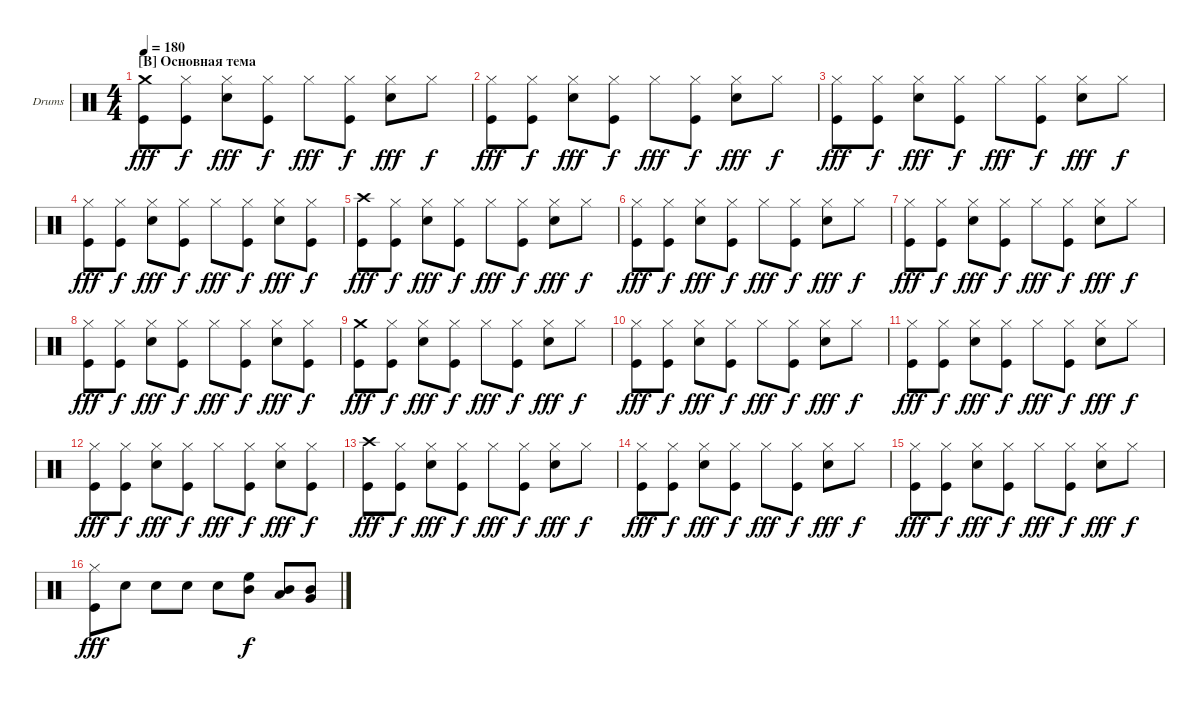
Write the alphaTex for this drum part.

\defaultSystemsLayout 4
\bracketExtendMode groupsimilarinstruments
\firstSystemTrackNameOrientation horizontal
\otherSystemsTrackNameOrientation horizontal
\track ("Барабаны" "Drums") {instrument percussion}
\staff {score}
\articulation defaults
\ts (4 4)
\section ("B" "Основная тема")
\tempo 180
\clef neutral
\scale
0.333333
\ks c
("Crash medium (hit)" "Kick (hit)").8{dy fff} ("Hi-Hat (closed)" "Kick (hit)").8{dy f} ("Hi-Hat (closed)" "Snare (hit) 2").8{dy fff} ("Hi-Hat (closed)" "Kick (hit)").8{dy f} "Hi-Hat (closed)".8{dy fff} ("Hi-Hat (closed)" "Kick (hit)").8{dy f} ("Hi-Hat (closed)" "Snare (hit) 2").8{dy fff} "Hi-Hat (closed)".8{dy f} |
\scale
0.333333 ("Hi-Hat (closed)" "Kick (hit)").8{dy fff} ("Hi-Hat (closed)" "Kick (hit)").8{dy f} ("Hi-Hat (closed)" "Snare (hit) 2").8{dy fff} ("Hi-Hat (closed)" "Kick (hit)").8{dy f} "Hi-Hat (closed)".8{dy fff} ("Hi-Hat (closed)" "Kick (hit)").8{dy f} ("Hi-Hat (closed)" "Snare (hit) 2").8{dy fff} "Hi-Hat (closed)".8{dy f} |
\scale
0.333333 ("Hi-Hat (closed)" "Kick (hit)").8{dy fff} ("Hi-Hat (closed)" "Kick (hit)").8{dy f} ("Hi-Hat (closed)" "Snare (hit) 2").8{dy fff} ("Hi-Hat (closed)" "Kick (hit)").8{dy f} "Hi-Hat (closed)".8{dy fff} ("Hi-Hat (closed)" "Kick (hit)").8{dy f} ("Hi-Hat (closed)" "Snare (hit) 2").8{dy fff} "Hi-Hat (closed)".8{dy f} |
\scale
0.333333 ("Hi-Hat (closed)" "Kick (hit)").8{dy fff} ("Hi-Hat (closed)" "Kick (hit)").8{dy f} ("Hi-Hat (closed)" "Snare (hit) 2").8{dy fff} ("Hi-Hat (closed)" "Kick (hit)").8{dy f} "Hi-Hat (closed)".8{dy fff} ("Hi-Hat (closed)" "Kick (hit)").8{dy f} ("Hi-Hat (closed)" "Snare (hit) 2").8{dy fff} ("Hi-Hat (closed)" "Kick (hit)").8{dy f} |
\scale
0.333333 ("Crash high (hit)" "Kick (hit)").8{dy fff} ("Hi-Hat (closed)" "Kick (hit)").8{dy f} ("Hi-Hat (closed)" "Snare (hit) 2").8{dy fff} ("Hi-Hat (closed)" "Kick (hit)").8{dy f} "Hi-Hat (closed)".8{dy fff} ("Hi-Hat (closed)" "Kick (hit)").8{dy f} ("Hi-Hat (closed)" "Snare (hit) 2").8{dy fff} "Hi-Hat (closed)".8{dy f} |
\scale
0.333333 ("Hi-Hat (closed)" "Kick (hit)").8{dy fff} ("Hi-Hat (closed)" "Kick (hit)").8{dy f} ("Hi-Hat (closed)" "Snare (hit) 2").8{dy fff} ("Hi-Hat (closed)" "Kick (hit)").8{dy f} "Hi-Hat (closed)".8{dy fff} ("Hi-Hat (closed)" "Kick (hit)").8{dy f} ("Hi-Hat (closed)" "Snare (hit) 2").8{dy fff} "Hi-Hat (closed)".8{dy f} |
\scale
0.333333 ("Hi-Hat (closed)" "Kick (hit)").8{dy fff} ("Hi-Hat (closed)" "Kick (hit)").8{dy f} ("Hi-Hat (closed)" "Snare (hit) 2").8{dy fff} ("Hi-Hat (closed)" "Kick (hit)").8{dy f} "Hi-Hat (closed)".8{dy fff} ("Hi-Hat (closed)" "Kick (hit)").8{dy f} ("Hi-Hat (closed)" "Snare (hit) 2").8{dy fff} "Hi-Hat (closed)".8{dy f} |
\scale
0.333333 ("Hi-Hat (closed)" "Kick (hit)").8{dy fff} ("Hi-Hat (closed)" "Kick (hit)").8{dy f} ("Hi-Hat (closed)" "Snare (hit) 2").8{dy fff} ("Hi-Hat (closed)" "Kick (hit)").8{dy f} "Hi-Hat (closed)".8{dy fff} ("Hi-Hat (closed)" "Kick (hit)").8{dy f} ("Hi-Hat (closed)" "Snare (hit) 2").8{dy fff} ("Hi-Hat (closed)" "Kick (hit)").8{dy f} |
\scale
0.333333 ("Crash medium (hit)" "Kick (hit)").8{dy fff} ("Hi-Hat (closed)" "Kick (hit)").8{dy f} ("Hi-Hat (closed)" "Snare (hit) 2").8{dy fff} ("Hi-Hat (closed)" "Kick (hit)").8{dy f} "Hi-Hat (closed)".8{dy fff} ("Hi-Hat (closed)" "Kick (hit)").8{dy f} ("Hi-Hat (closed)" "Snare (hit) 2").8{dy fff} "Hi-Hat (closed)".8{dy f} |
\scale
0.333333 ("Hi-Hat (closed)" "Kick (hit)").8{dy fff} ("Hi-Hat (closed)" "Kick (hit)").8{dy f} ("Hi-Hat (closed)" "Snare (hit) 2").8{dy fff} ("Hi-Hat (closed)" "Kick (hit)").8{dy f} "Hi-Hat (closed)".8{dy fff} ("Hi-Hat (closed)" "Kick (hit)").8{dy f} ("Hi-Hat (closed)" "Snare (hit) 2").8{dy fff} "Hi-Hat (closed)".8{dy f} |
\scale
0.333333 ("Hi-Hat (closed)" "Kick (hit)").8{dy fff} ("Hi-Hat (closed)" "Kick (hit)").8{dy f} ("Hi-Hat (closed)" "Snare (hit) 2").8{dy fff} ("Hi-Hat (closed)" "Kick (hit)").8{dy f} "Hi-Hat (closed)".8{dy fff} ("Hi-Hat (closed)" "Kick (hit)").8{dy f} ("Hi-Hat (closed)" "Snare (hit) 2").8{dy fff} "Hi-Hat (closed)".8{dy f} |
\scale
0.333333 ("Hi-Hat (closed)" "Kick (hit)").8{dy fff} ("Hi-Hat (closed)" "Kick (hit)").8{dy f} ("Hi-Hat (closed)" "Snare (hit) 2").8{dy fff} ("Hi-Hat (closed)" "Kick (hit)").8{dy f} "Hi-Hat (closed)".8{dy fff} ("Hi-Hat (closed)" "Kick (hit)").8{dy f} ("Hi-Hat (closed)" "Snare (hit) 2").8{dy fff} ("Hi-Hat (closed)" "Kick (hit)").8{dy f} |
\scale
0.333333 ("Crash high (hit)" "Kick (hit)").8{dy fff} ("Hi-Hat (closed)" "Kick (hit)").8{dy f} ("Hi-Hat (closed)" "Snare (hit) 2").8{dy fff} ("Hi-Hat (closed)" "Kick (hit)").8{dy f} "Hi-Hat (closed)".8{dy fff} ("Hi-Hat (closed)" "Kick (hit)").8{dy f} ("Hi-Hat (closed)" "Snare (hit) 2").8{dy fff} "Hi-Hat (closed)".8{dy f} |
\scale
0.333333 ("Hi-Hat (closed)" "Kick (hit)").8{dy fff} ("Hi-Hat (closed)" "Kick (hit)").8{dy f} ("Hi-Hat (closed)" "Snare (hit) 2").8{dy fff} ("Hi-Hat (closed)" "Kick (hit)").8{dy f} "Hi-Hat (closed)".8{dy fff} ("Hi-Hat (closed)" "Kick (hit)").8{dy f} ("Hi-Hat (closed)" "Snare (hit) 2").8{dy fff} "Hi-Hat (closed)".8{dy f} |
\scale
0.333333 ("Hi-Hat (closed)" "Kick (hit)").8{dy fff} ("Hi-Hat (closed)" "Kick (hit)").8{dy f} ("Hi-Hat (closed)" "Snare (hit) 2").8{dy fff} ("Hi-Hat (closed)" "Kick (hit)").8{dy f} "Hi-Hat (closed)".8{dy fff} ("Hi-Hat (closed)" "Kick (hit)").8{dy f} ("Hi-Hat (closed)" "Snare (hit) 2").8{dy fff} "Hi-Hat (closed)".8{dy f} |
\scale
0.333333 ("Hi-Hat (closed)" "Kick (hit)").8{dy fff} "Snare (hit) 2".8 "Snare (hit) 2".8 "Snare (hit) 2".8 "Snare (hit) 2".8 ("High Floor Tom (hit)" "Mid Tom (hit)").8{dy f} ("Mid Tom (hit)" "Low Tom (hit)").8 ("Very Low Tom (hit)" "Mid Tom (hit)").8
